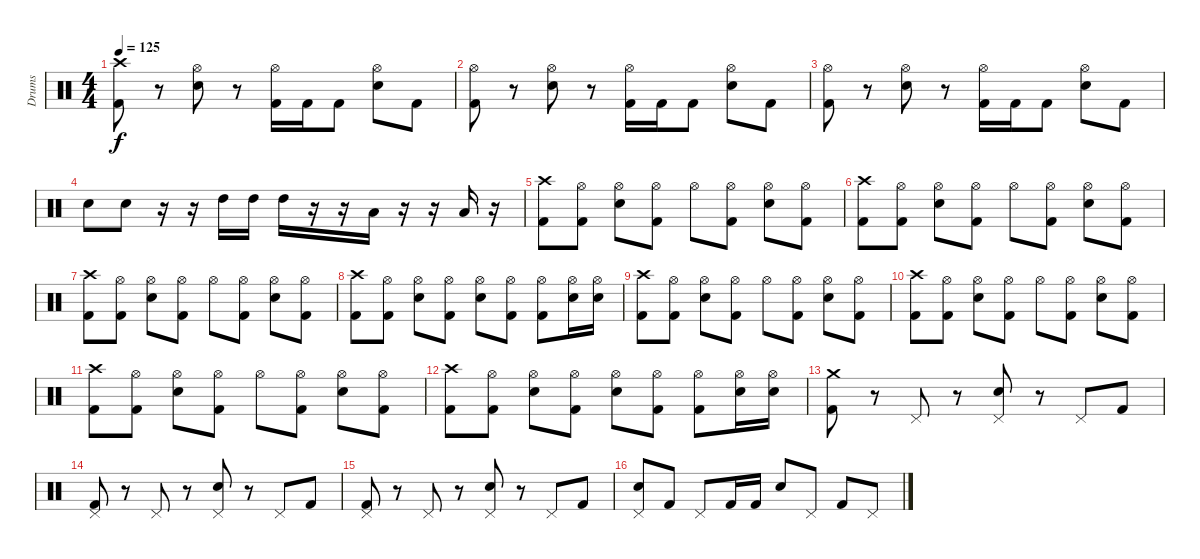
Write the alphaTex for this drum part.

\track ("Drums" "Drums") {instrument percussion}
\staff {score}
\articulation defaults
\ts (4 4)
\tempo 125
\clef neutral
\ks c
("Kick (hit) 2" "Crash high (hit)").8{dy f} r.8 ("Electric Snare (hit)" "Hi-Hat (open)").8 r.8 ("Kick (hit) 2" "Hi-Hat (open)").16 "Kick (hit) 2".16 "Kick (hit) 2".8 ("Electric Snare (hit)" "Hi-Hat (open)").8 "Kick (hit) 2".8 |
("Kick (hit) 2" "Hi-Hat (open)").8 r.8 ("Electric Snare (hit)" "Hi-Hat (open)").8 r.8 ("Kick (hit) 2" "Hi-Hat (open)").16 "Kick (hit) 2".16 "Kick (hit) 2".8 ("Electric Snare (hit)" "Hi-Hat (open)").8 "Kick (hit) 2".8 |
("Kick (hit) 2" "Hi-Hat (open)").8 r.8 ("Electric Snare (hit)" "Hi-Hat (open)").8 r.8 ("Kick (hit) 2" "Hi-Hat (open)").16 "Kick (hit) 2".16 "Kick (hit) 2".8 ("Electric Snare (hit)" "Hi-Hat (open)").8 "Kick (hit) 2".8 |
"Snare (hit) 2".8 "Snare (hit) 2".8 r.16 r.16 "High Tom (hit)".16 "High Tom (hit)".16 "High Tom (hit)".16 r.16 r.16 "Low Tom (hit)".16 r.16 r.16 "Low Tom (hit)".16 r.16 |
("Kick (hit) 2" "Crash high (hit)").8 ("Kick (hit) 2" "Hi-Hat (open)").8 ("Electric Snare (hit)" "Hi-Hat (open)").8 ("Kick (hit) 2" "Hi-Hat (open)").8 "Hi-Hat (open)".8 ("Kick (hit) 2" "Hi-Hat (open)").8 ("Electric Snare (hit)" "Hi-Hat (open)").8 ("Kick (hit) 2" "Hi-Hat (open)").8 |
("Kick (hit) 2" "Crash high (hit)").8 ("Kick (hit) 2" "Hi-Hat (open)").8 ("Electric Snare (hit)" "Hi-Hat (open)").8 ("Kick (hit) 2" "Hi-Hat (open)").8 "Hi-Hat (open)".8 ("Kick (hit) 2" "Hi-Hat (open)").8 ("Electric Snare (hit)" "Hi-Hat (open)").8 ("Kick (hit) 2" "Hi-Hat (open)").8 |
("Kick (hit) 2" "Crash high (hit)").8 ("Kick (hit) 2" "Hi-Hat (open)").8 ("Electric Snare (hit)" "Hi-Hat (open)").8 ("Kick (hit) 2" "Hi-Hat (open)").8 "Hi-Hat (open)".8 ("Kick (hit) 2" "Hi-Hat (open)").8 ("Electric Snare (hit)" "Hi-Hat (open)").8 ("Kick (hit) 2" "Hi-Hat (open)").8 |
("Kick (hit) 2" "Crash high (hit)").8 ("Kick (hit) 2" "Hi-Hat (open)").8 ("Electric Snare (hit)" "Hi-Hat (open)").8 ("Kick (hit) 2" "Hi-Hat (open)").8 ("Electric Snare (hit)" "Hi-Hat (open)").8 ("Kick (hit) 2" "Hi-Hat (open)").8 ("Kick (hit) 2" "Hi-Hat (open)").8 ("Electric Snare (hit)" "Hi-Hat (open)").16 ("Electric Snare (hit)" "Hi-Hat (open)").16 |
("Kick (hit) 2" "Crash high (hit)").8 ("Kick (hit) 2" "Hi-Hat (open)").8 ("Electric Snare (hit)" "Hi-Hat (open)").8 ("Kick (hit) 2" "Hi-Hat (open)").8 "Hi-Hat (open)".8 ("Kick (hit) 2" "Hi-Hat (open)").8 ("Electric Snare (hit)" "Hi-Hat (open)").8 ("Kick (hit) 2" "Hi-Hat (open)").8 |
("Kick (hit) 2" "Crash high (hit)").8 ("Kick (hit) 2" "Hi-Hat (open)").8 ("Electric Snare (hit)" "Hi-Hat (open)").8 ("Kick (hit) 2" "Hi-Hat (open)").8 "Hi-Hat (open)".8 ("Kick (hit) 2" "Hi-Hat (open)").8 ("Electric Snare (hit)" "Hi-Hat (open)").8 ("Kick (hit) 2" "Hi-Hat (open)").8 |
("Kick (hit) 2" "Crash high (hit)").8 ("Kick (hit) 2" "Hi-Hat (open)").8 ("Electric Snare (hit)" "Hi-Hat (open)").8 ("Kick (hit) 2" "Hi-Hat (open)").8 "Hi-Hat (open)".8 ("Kick (hit) 2" "Hi-Hat (open)").8 ("Electric Snare (hit)" "Hi-Hat (open)").8 ("Kick (hit) 2" "Hi-Hat (open)").8 |
("Kick (hit) 2" "Crash high (hit)").8 ("Kick (hit) 2" "Hi-Hat (open)").8 ("Electric Snare (hit)" "Hi-Hat (open)").8 ("Kick (hit) 2" "Hi-Hat (open)").8 ("Electric Snare (hit)" "Hi-Hat (open)").8 ("Kick (hit) 2" "Hi-Hat (open)").8 ("Kick (hit) 2" "Hi-Hat (open)").8 ("Electric Snare (hit)" "Hi-Hat (open)").16 ("Electric Snare (hit)" "Hi-Hat (open)").16 |
("Crash medium (hit)" "Kick (hit) 2").8 r.8 "Pedal Hi-Hat (hit)".8 r.8 ("Electric Snare (hit)" "Pedal Hi-Hat (hit)").8 r.8 "Pedal Hi-Hat (hit)".8 "Kick (hit) 2".8 |
("Kick (hit) 2" "Pedal Hi-Hat (hit)").8 r.8 "Pedal Hi-Hat (hit)".8 r.8 ("Electric Snare (hit)" "Pedal Hi-Hat (hit)").8 r.8 "Pedal Hi-Hat (hit)".8 "Kick (hit) 2".8 |
("Kick (hit) 2" "Pedal Hi-Hat (hit)").8 r.8 "Pedal Hi-Hat (hit)".8 r.8 ("Electric Snare (hit)" "Pedal Hi-Hat (hit)").8 r.8 "Pedal Hi-Hat (hit)".8 "Kick (hit) 2".8 |
("Electric Snare (hit)" "Pedal Hi-Hat (hit)").8 "Kick (hit) 2".8 "Pedal Hi-Hat (hit)".8 "Kick (hit) 2".16 "Kick (hit) 2".16 "Electric Snare (hit)".8 "Pedal Hi-Hat (hit)".8 "Kick (hit) 2".8 "Pedal Hi-Hat (hit)".8
